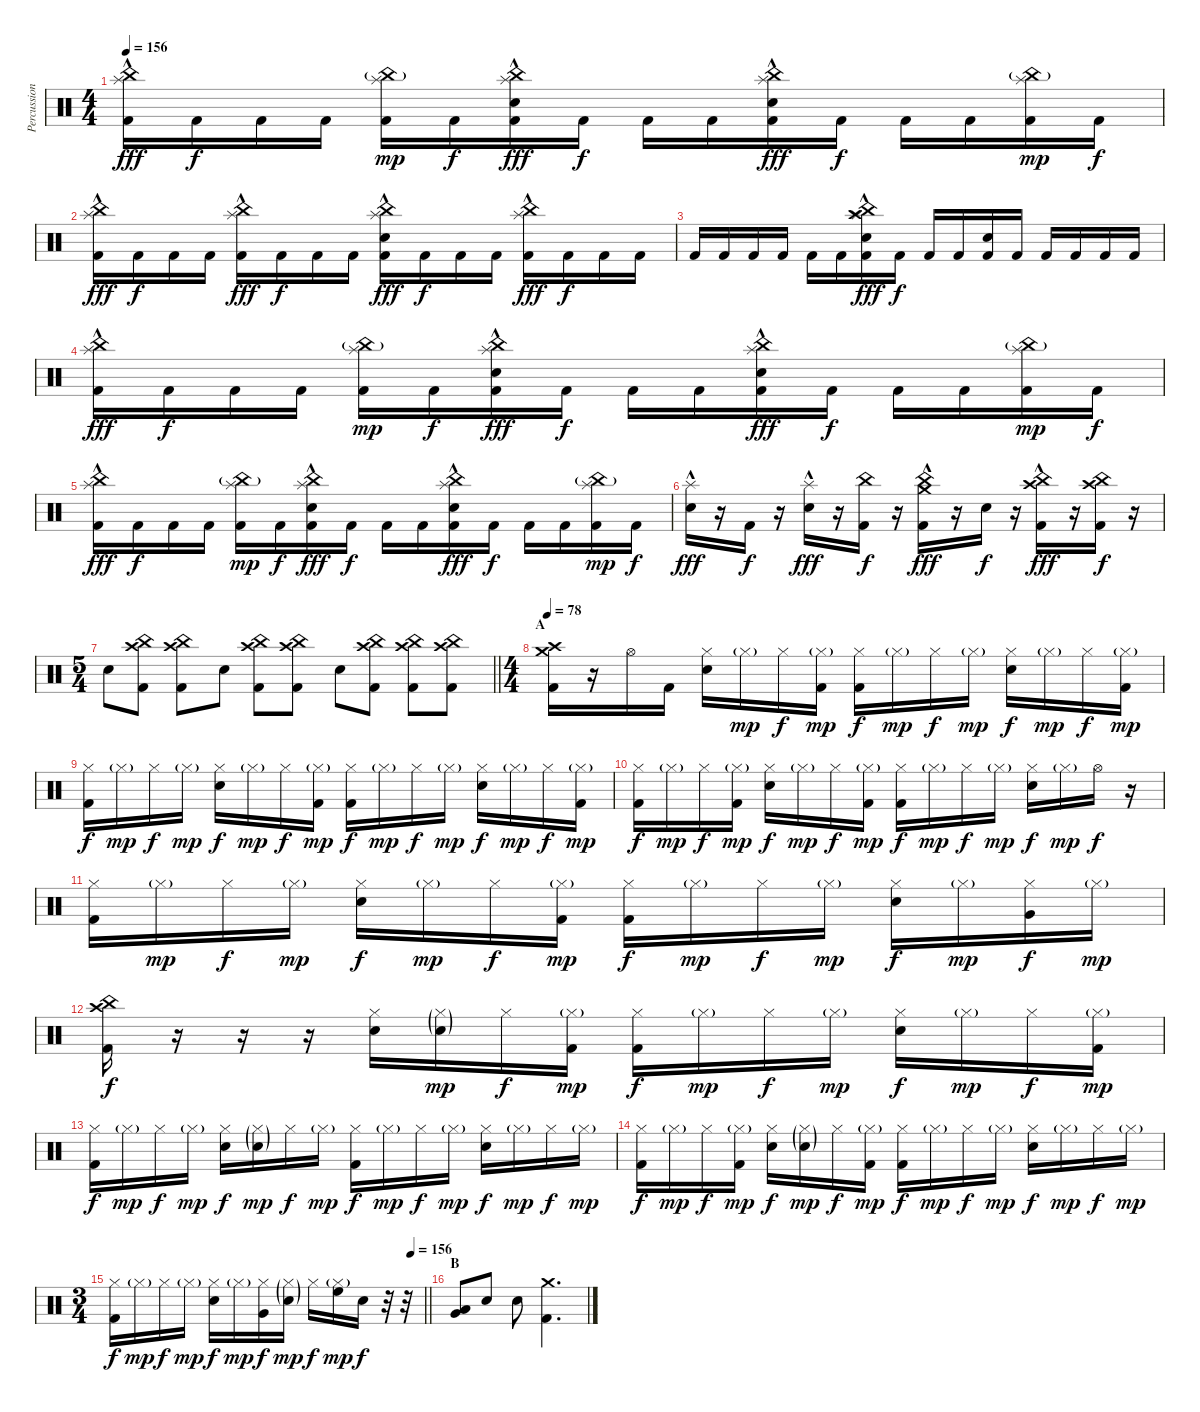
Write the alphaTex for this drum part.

\track ("Percussion" "Percussion") {instrument percussion}
\staff {score}
\articulation defaults
\ts (4 4)
\tempo 156
\clef neutral
\ks c
("China (hit)" "Splash (hit)"{hac} "Kick (hit) 2").16{dy fff} "Kick (hit) 2".16{dy f} "Kick (hit) 2".16 "Kick (hit) 2".16 ("China (hit)"{g} "Splash (hit)" "Kick (hit) 2").16{dy mp} "Kick (hit) 2".16{dy f} ("China (hit)" "Splash (hit)"{hac} "Electric Snare (hit)" "Kick (hit) 2").16{dy fff} "Kick (hit) 2".16{dy f} "Kick (hit) 2".16 "Kick (hit) 2".16 ("China (hit)" "Splash (hit)"{hac} "Electric Snare (hit)" "Kick (hit) 2").16{dy fff} "Kick (hit) 2".16{dy f} "Kick (hit) 2".16 "Kick (hit) 2".16 ("China (hit)"{g} "Splash (hit)" "Kick (hit) 2").16{dy mp} "Kick (hit) 2".16{dy f} |
("China (hit)" "Splash (hit)"{hac} "Kick (hit) 2").16{dy fff} "Kick (hit) 2".16{dy f} "Kick (hit) 2".16 "Kick (hit) 2".16 ("China (hit)" "Splash (hit)"{hac} "Kick (hit) 2").16{dy fff} "Kick (hit) 2".16{dy f} "Kick (hit) 2".16 "Kick (hit) 2".16 ("China (hit)" "Splash (hit)"{hac} "Electric Snare (hit)" "Kick (hit) 2").16{dy fff} "Kick (hit) 2".16{dy f} "Kick (hit) 2".16 "Kick (hit) 2".16 ("China (hit)" "Splash (hit)"{hac} "Kick (hit) 2").16{dy fff} "Kick (hit) 2".16{dy f} "Kick (hit) 2".16 "Kick (hit) 2".16 |
"Kick (hit) 2".16 "Kick (hit) 2".16 "Kick (hit) 2".16 "Kick (hit) 2".16 "Kick (hit) 2".16 "Kick (hit) 2".16 ("China (hit)" "Splash (hit)"{hac} "Crash high (hit)" "Electric Snare (hit)" "Kick (hit) 2").16{dy fff} "Kick (hit) 2".16{dy f} "Kick (hit) 2".16 "Kick (hit) 2".16 ("Electric Snare (hit)" "Kick (hit) 2").16 "Kick (hit) 2".16 "Kick (hit) 2".16 "Kick (hit) 2".16 "Kick (hit) 2".16 "Kick (hit) 2".16 |
("China (hit)" "Splash (hit)"{hac} "Kick (hit) 2").16{dy fff} "Kick (hit) 2".16{dy f} "Kick (hit) 2".16 "Kick (hit) 2".16 ("China (hit)"{g} "Splash (hit)" "Kick (hit) 2").16{dy mp} "Kick (hit) 2".16{dy f} ("China (hit)" "Splash (hit)"{hac} "Electric Snare (hit)" "Kick (hit) 2").16{dy fff} "Kick (hit) 2".16{dy f} "Kick (hit) 2".16 "Kick (hit) 2".16 ("China (hit)" "Splash (hit)"{hac} "Electric Snare (hit)" "Kick (hit) 2").16{dy fff} "Kick (hit) 2".16{dy f} "Kick (hit) 2".16 "Kick (hit) 2".16 ("China (hit)"{g} "Splash (hit)" "Kick (hit) 2").16{dy mp} "Kick (hit) 2".16{dy f} |
("China (hit)" "Splash (hit)"{hac} "Kick (hit) 2").16{dy fff} "Kick (hit) 2".16{dy f} "Kick (hit) 2".16 "Kick (hit) 2".16 ("China (hit)"{g} "Splash (hit)" "Kick (hit) 2").16{dy mp} "Kick (hit) 2".16{dy f} ("China (hit)" "Splash (hit)"{hac} "Electric Snare (hit)" "Kick (hit) 2").16{dy fff} "Kick (hit) 2".16{dy f} "Kick (hit) 2".16 "Kick (hit) 2".16 ("China (hit)" "Splash (hit)"{hac} "Electric Snare (hit)" "Kick (hit) 2").16{dy fff} "Kick (hit) 2".16{dy f} "Kick (hit) 2".16 "Kick (hit) 2".16 ("China (hit)"{g} "Splash (hit)" "Kick (hit) 2").16{dy mp} "Kick (hit) 2".16{dy f} |
("Splash (hit)"{hac} "Electric Snare (hit)").16{dy fff} r.16 "Kick (hit) 2".16{dy f} r.16 ("Splash (hit)"{hac} "Electric Snare (hit)").16{dy fff} r.16 ("China (hit)" "Kick (hit) 2").16{dy f} r.16 ("China (hit)" "Crash medium (hit)"{hac} "Kick (hit) 2").16{dy fff} r.16 "Electric Snare (hit)".16{dy f} r.16 ("China (hit)" "Crash high (hit)"{hac} "Kick (hit) 2").16{dy fff} r.16 ("China (hit)" "Crash high (hit)" "Kick (hit) 2").16{dy f} r.16 |
\ts (5 4)
\barLineRight lightlight "Electric Snare (hit)".8
("China (hit)" "Crash high (hit)" "Kick (hit) 2").8 ("China (hit)" "Crash high (hit)" "Kick (hit) 2").8 "Electric Snare (hit)".8 ("China (hit)" "Crash high (hit)" "Kick (hit) 2").8 ("China (hit)" "Crash high (hit)" "Kick (hit) 2").8 "Electric Snare (hit)".8 ("China (hit)" "Crash high (hit)" "Kick (hit) 2").8 ("China (hit)" "Crash high (hit)" "Kick (hit) 2").8 ("China (hit)" "Crash high (hit)" "Kick (hit) 2").8 |
\ts (4 4)
\section ("" "A")
\tempo 78
("Crash medium (hit)" "Crash high (hit)" "Kick (hit) 2").16 r.16 "Hi-Hat (open)".16 "Kick (hit) 2".16 ("Hi-Hat (closed)" "Electric Snare (hit)").16 "Hi-Hat (closed)"{g}.16{dy mp} "Hi-Hat (closed)".16{dy f} ("Hi-Hat (closed)"{g} "Kick (hit) 2").16{dy mp} ("Hi-Hat (closed)" "Kick (hit) 2").16{dy f} "Hi-Hat (closed)"{g}.16{dy mp} "Hi-Hat (closed)".16{dy f} "Hi-Hat (closed)"{g}.16{dy mp} ("Hi-Hat (closed)" "Electric Snare (hit)").16{dy f} "Hi-Hat (closed)"{g}.16{dy mp} "Hi-Hat (closed)".16{dy f} ("Hi-Hat (closed)"{g} "Kick (hit) 2").16{dy mp} |
("Hi-Hat (closed)" "Kick (hit) 2").16{dy f} "Hi-Hat (closed)"{g}.16{dy mp} "Hi-Hat (closed)".16{dy f} "Hi-Hat (closed)"{g}.16{dy mp} ("Hi-Hat (closed)" "Electric Snare (hit)").16{dy f} "Hi-Hat (closed)"{g}.16{dy mp} "Hi-Hat (closed)".16{dy f} ("Hi-Hat (closed)"{g} "Kick (hit) 2").16{dy mp} ("Hi-Hat (closed)" "Kick (hit) 2").16{dy f} "Hi-Hat (closed)"{g}.16{dy mp} "Hi-Hat (closed)".16{dy f} "Hi-Hat (closed)"{g}.16{dy mp} ("Hi-Hat (closed)" "Electric Snare (hit)").16{dy f} "Hi-Hat (closed)"{g}.16{dy mp} "Hi-Hat (closed)".16{dy f} ("Hi-Hat (closed)"{g} "Kick (hit) 2").16{dy mp} |
("Hi-Hat (closed)" "Kick (hit) 2").16{dy f} "Hi-Hat (closed)"{g}.16{dy mp} "Hi-Hat (closed)".16{dy f} ("Hi-Hat (closed)"{g} "Kick (hit) 2").16{dy mp} ("Hi-Hat (closed)" "Electric Snare (hit)").16{dy f} "Hi-Hat (closed)"{g}.16{dy mp} "Hi-Hat (closed)".16{dy f} ("Hi-Hat (closed)"{g} "Kick (hit) 2").16{dy mp} ("Hi-Hat (closed)" "Kick (hit) 2").16{dy f} "Hi-Hat (closed)"{g}.16{dy mp} "Hi-Hat (closed)".16{dy f} "Hi-Hat (closed)"{g}.16{dy mp} ("Hi-Hat (closed)" "Electric Snare (hit)").16{dy f} "Hi-Hat (closed)"{g}.16{dy mp} "Hi-Hat (open)".16{dy f} r.16 |
("Hi-Hat (closed)" "Kick (hit) 2").16 "Hi-Hat (closed)"{g}.16{dy mp} "Hi-Hat (closed)".16{dy f} "Hi-Hat (closed)"{g}.16{dy mp} ("Hi-Hat (closed)" "Electric Snare (hit)").16{dy f} "Hi-Hat (closed)"{g}.16{dy mp} "Hi-Hat (closed)".16{dy f} ("Hi-Hat (closed)"{g} "Kick (hit) 2").16{dy mp} ("Hi-Hat (closed)" "Kick (hit) 2").16{dy f} "Hi-Hat (closed)"{g}.16{dy mp} "Hi-Hat (closed)".16{dy f} "Hi-Hat (closed)"{g}.16{dy mp} ("Hi-Hat (closed)" "Electric Snare (hit)").16{dy f} "Hi-Hat (closed)"{g}.16{dy mp} ("Hi-Hat (closed)" "Very Low Tom (hit)").16{dy f} "Hi-Hat (closed)"{g}.16{dy mp} |
("China (hit)" "Crash high (hit)" "Kick (hit) 2").16{dy f} r.16 r.16 r.16 ("Hi-Hat (closed)" "Electric Snare (hit)").16 ("Hi-Hat (closed)"{g} "Electric Snare (hit)"{g}).16{dy mp} "Hi-Hat (closed)".16{dy f} ("Hi-Hat (closed)"{g} "Kick (hit) 2").16{dy mp} ("Hi-Hat (closed)" "Kick (hit) 2").16{dy f} "Hi-Hat (closed)"{g}.16{dy mp} "Hi-Hat (closed)".16{dy f} "Hi-Hat (closed)"{g}.16{dy mp} ("Hi-Hat (closed)" "Electric Snare (hit)").16{dy f} "Hi-Hat (closed)"{g}.16{dy mp} "Hi-Hat (closed)".16{dy f} ("Hi-Hat (closed)"{g} "Kick (hit) 2").16{dy mp} |
("Hi-Hat (closed)" "Kick (hit) 2").16{dy f} "Hi-Hat (closed)"{g}.16{dy mp} "Hi-Hat (closed)".16{dy f} "Hi-Hat (closed)"{g}.16{dy mp} ("Hi-Hat (closed)" "Electric Snare (hit)").16{dy f} ("Hi-Hat (closed)"{g} "Electric Snare (hit)"{g}).16{dy mp} "Hi-Hat (closed)".16{dy f} "Hi-Hat (closed)"{g}.16{dy mp} ("Hi-Hat (closed)" "Kick (hit) 2").16{dy f} "Hi-Hat (closed)"{g}.16{dy mp} "Hi-Hat (closed)".16{dy f} "Hi-Hat (closed)"{g}.16{dy mp} ("Hi-Hat (closed)" "Electric Snare (hit)").16{dy f} "Hi-Hat (closed)"{g}.16{dy mp} "Hi-Hat (closed)".16{dy f} "Hi-Hat (closed)"{g}.16{dy mp} |
("Hi-Hat (closed)" "Kick (hit) 2").16{dy f} "Hi-Hat (closed)"{g}.16{dy mp} "Hi-Hat (closed)".16{dy f} ("Hi-Hat (closed)"{g} "Kick (hit) 2").16{dy mp} ("Hi-Hat (closed)" "Electric Snare (hit)").16{dy f} ("Hi-Hat (closed)"{g} "Electric Snare (hit)"{g}).16{dy mp} "Hi-Hat (closed)".16{dy f} ("Hi-Hat (closed)"{g} "Kick (hit) 2").16{dy mp} ("Hi-Hat (closed)" "Kick (hit) 2").16{dy f} "Hi-Hat (closed)"{g}.16{dy mp} "Hi-Hat (closed)".16{dy f} "Hi-Hat (closed)"{g}.16{dy mp} ("Hi-Hat (closed)" "Electric Snare (hit)").16{dy f} "Hi-Hat (closed)"{g}.16{dy mp} "Hi-Hat (closed)".16{dy f} "Hi-Hat (closed)"{g}.16{dy mp} |
\ts (3 4)
\tempo (156 0.9583333333333334)
\barLineRight lightlight
("Hi-Hat (closed)" "Kick (hit) 2").16{dy f} "Hi-Hat (closed)"{g}.16{dy mp} "Hi-Hat (closed)".16{dy f} "Hi-Hat (closed)"{g}.16{dy mp} ("Hi-Hat (closed)" "Electric Snare (hit)").16{dy f} "Hi-Hat (closed)"{g}.16{dy mp} ("Hi-Hat (closed)" "Very Low Tom (hit)").16{dy f} ("Hi-Hat (closed)"{g} "Electric Snare (hit)"{g}).16{dy mp} "Hi-Hat (closed)".16{dy f} ("Hi-Hat (closed)"{g} "High Floor Tom (hit)").16{dy mp} "Electric Snare (hit)".16{dy f} r.32 r.32 |
\section ("" "B")
("Very Low Tom (hit)" "Low Floor Tom (hit)").8 "Electric Snare (hit)".8 "Electric Snare (hit)".8 ("Crash medium (hit)" "Kick (hit) 2").4{d}
